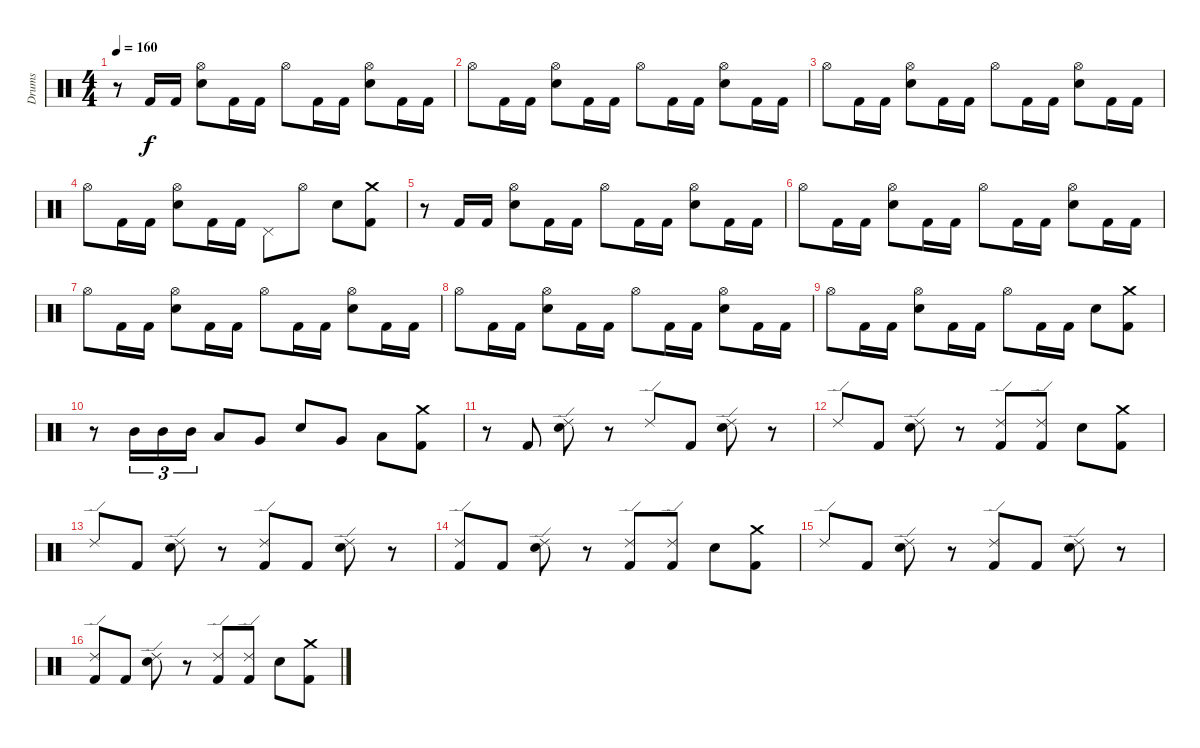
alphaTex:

\track ("Drums" "Drums") {instrument percussion}
\staff {score}
\articulation defaults
\ts (4 4)
\tempo 160
\clef neutral
\ks c
r.8{dy f} "Kick (hit) 2".16 "Kick (hit) 2".16 ("Hi-Hat (open)" "Snare (hit) 2").8 "Kick (hit) 2".16 "Kick (hit) 2".16 "Hi-Hat (open)".8 "Kick (hit) 2".16 "Kick (hit) 2".16 ("Hi-Hat (open)" "Snare (hit) 2").8 "Kick (hit) 2".16 "Kick (hit) 2".16 |
"Hi-Hat (open)".8 "Kick (hit) 2".16 "Kick (hit) 2".16 ("Hi-Hat (open)" "Snare (hit) 2").8 "Kick (hit) 2".16 "Kick (hit) 2".16 "Hi-Hat (open)".8 "Kick (hit) 2".16 "Kick (hit) 2".16 ("Hi-Hat (open)" "Snare (hit) 2").8 "Kick (hit) 2".16 "Kick (hit) 2".16 |
"Hi-Hat (open)".8 "Kick (hit) 2".16 "Kick (hit) 2".16 ("Hi-Hat (open)" "Snare (hit) 2").8 "Kick (hit) 2".16 "Kick (hit) 2".16 "Hi-Hat (open)".8 "Kick (hit) 2".16 "Kick (hit) 2".16 ("Hi-Hat (open)" "Snare (hit) 2").8 "Kick (hit) 2".16 "Kick (hit) 2".16 |
"Hi-Hat (open)".8 "Kick (hit) 2".16 "Kick (hit) 2".16 ("Hi-Hat (open)" "Snare (hit) 2").8 "Kick (hit) 2".16 "Kick (hit) 2".16 "Pedal Hi-Hat (hit)".8 "Hi-Hat (open)".8 "Snare (hit) 2".8 ("Crash medium (hit)" "Kick (hit) 2").8 |
r.8 "Kick (hit) 2".16 "Kick (hit) 2".16 ("Hi-Hat (open)" "Snare (hit) 2").8 "Kick (hit) 2".16 "Kick (hit) 2".16 "Hi-Hat (open)".8 "Kick (hit) 2".16 "Kick (hit) 2".16 ("Hi-Hat (open)" "Snare (hit) 2").8 "Kick (hit) 2".16 "Kick (hit) 2".16 |
"Hi-Hat (open)".8 "Kick (hit) 2".16 "Kick (hit) 2".16 ("Hi-Hat (open)" "Snare (hit) 2").8 "Kick (hit) 2".16 "Kick (hit) 2".16 "Hi-Hat (open)".8 "Kick (hit) 2".16 "Kick (hit) 2".16 ("Hi-Hat (open)" "Snare (hit) 2").8 "Kick (hit) 2".16 "Kick (hit) 2".16 |
"Hi-Hat (open)".8 "Kick (hit) 2".16 "Kick (hit) 2".16 ("Hi-Hat (open)" "Snare (hit) 2").8 "Kick (hit) 2".16 "Kick (hit) 2".16 "Hi-Hat (open)".8 "Kick (hit) 2".16 "Kick (hit) 2".16 ("Hi-Hat (open)" "Snare (hit) 2").8 "Kick (hit) 2".16 "Kick (hit) 2".16 |
"Hi-Hat (open)".8 "Kick (hit) 2".16 "Kick (hit) 2".16 ("Hi-Hat (open)" "Snare (hit) 2").8 "Kick (hit) 2".16 "Kick (hit) 2".16 "Hi-Hat (open)".8 "Kick (hit) 2".16 "Kick (hit) 2".16 ("Hi-Hat (open)" "Snare (hit) 2").8 "Kick (hit) 2".16 "Kick (hit) 2".16 |
"Hi-Hat (open)".8 "Kick (hit) 2".16 "Kick (hit) 2".16 ("Hi-Hat (open)" "Snare (hit) 2").8 "Kick (hit) 2".16 "Kick (hit) 2".16 "Hi-Hat (open)".8 "Kick (hit) 2".16 "Kick (hit) 2".16 "Snare (hit) 2".8 ("Crash medium (hit)" "Kick (hit) 2").8 |
r.8 "Mid Tom (hit)".16{tu (3 2)} "Mid Tom (hit)".16{tu (3 2)} "Mid Tom (hit)".16{tu (3 2)} "Low Tom (hit)".8 "Very Low Tom (hit)".8 "Snare (hit) 2".8 "Very Low Tom (hit)".8 "Low Floor Tom (hit)".8 ("Crash medium (hit)" "Kick (hit) 2").8 |
r.8 "Kick (hit) 2".8 ("Ride (edge) 2" "Snare (hit) 2").8 r.8 "Ride (edge) 2".8 "Kick (hit) 2".8 ("Ride (edge) 2" "Snare (hit) 2").8 r.8 |
"Ride (edge) 2".8 "Kick (hit) 2".8 ("Ride (edge) 2" "Snare (hit) 2").8 r.8 ("Ride (edge) 2" "Kick (hit) 2").8 ("Ride (edge) 2" "Kick (hit) 2").8 "Snare (hit) 2".8 ("Crash medium (hit)" "Kick (hit) 2").8 |
"Ride (edge) 2".8 "Kick (hit) 2".8 ("Ride (edge) 2" "Snare (hit) 2").8 r.8 ("Ride (edge) 2" "Kick (hit) 2").8 "Kick (hit) 2".8 ("Ride (edge) 2" "Snare (hit) 2").8 r.8 |
("Ride (edge) 2" "Kick (hit) 2").8 "Kick (hit) 2".8 ("Ride (edge) 2" "Snare (hit) 2").8 r.8 ("Ride (edge) 2" "Kick (hit) 2").8 ("Ride (edge) 2" "Kick (hit) 2").8 "Snare (hit) 2".8 ("Crash medium (hit)" "Kick (hit) 2").8 |
"Ride (edge) 2".8 "Kick (hit) 2".8 ("Ride (edge) 2" "Snare (hit) 2").8 r.8 ("Ride (edge) 2" "Kick (hit) 2").8 "Kick (hit) 2".8 ("Ride (edge) 2" "Snare (hit) 2").8 r.8 |
("Ride (edge) 2" "Kick (hit) 2").8 "Kick (hit) 2".8 ("Ride (edge) 2" "Snare (hit) 2").8 r.8 ("Ride (edge) 2" "Kick (hit) 2").8 ("Ride (edge) 2" "Kick (hit) 2").8 "Snare (hit) 2".8 ("Crash medium (hit)" "Kick (hit) 2").8
